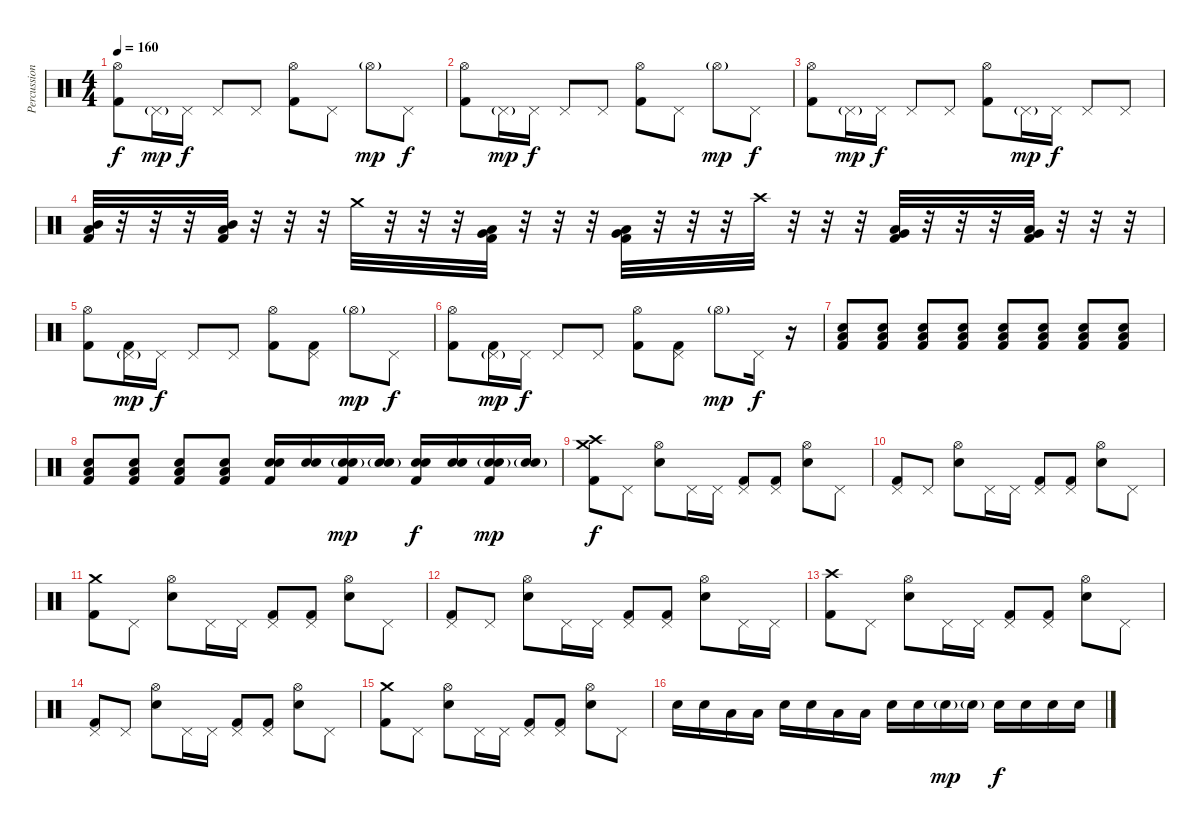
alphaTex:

\track ("Percussion" "Percussion") {instrument percussion}
\staff {score}
\articulation defaults
\ts (4 4)
\tempo 160
\clef neutral
\ks c
("Hi-Hat (open)" "Kick (hit) 2").8{dy f volume 13} "Pedal Hi-Hat (hit)"{g}.16{dy mp} "Pedal Hi-Hat (hit)".16{dy f} "Pedal Hi-Hat (hit)".8 "Pedal Hi-Hat (hit)".8 ("Hi-Hat (open)" "Kick (hit) 2").8 "Pedal Hi-Hat (hit)".8 "Hi-Hat (open)"{g}.8{dy mp} "Pedal Hi-Hat (hit)".8{dy f} |
("Hi-Hat (open)" "Kick (hit) 2").8 "Pedal Hi-Hat (hit)"{g}.16{dy mp} "Pedal Hi-Hat (hit)".16{dy f} "Pedal Hi-Hat (hit)".8 "Pedal Hi-Hat (hit)".8 ("Hi-Hat (open)" "Kick (hit) 2").8 "Pedal Hi-Hat (hit)".8 "Hi-Hat (open)"{g}.8{dy mp} "Pedal Hi-Hat (hit)".8{dy f} |
("Hi-Hat (open)" "Kick (hit) 2").8 "Pedal Hi-Hat (hit)"{g}.16{dy mp} "Pedal Hi-Hat (hit)".16{dy f} "Pedal Hi-Hat (hit)".8 "Pedal Hi-Hat (hit)".8 ("Hi-Hat (open)" "Kick (hit) 2").8 "Pedal Hi-Hat (hit)"{g}.16{dy mp} "Pedal Hi-Hat (hit)".16{dy f} "Pedal Hi-Hat (hit)".8 "Pedal Hi-Hat (hit)".8 |
("Mid Tom (hit)" "Low Tom (hit)" "Kick (hit) 2").32 r.32 r.32 r.32 ("Mid Tom (hit)" "Low Tom (hit)" "Kick (hit) 2").32 r.32 r.32 r.32 "Crash medium (hit)".32 r.32 r.32 r.32 ("Low Tom (hit)" "Very Low Tom (hit)" "Kick (hit) 2").32 r.32 r.32 r.32 ("Low Tom (hit)" "Very Low Tom (hit)" "Kick (hit) 2").32 r.32 r.32 r.32 "Crash high (hit)".32 r.32 r.32 r.32 ("Very Low Tom (hit)" "Low Floor Tom (hit)" "Kick (hit) 2").32 r.32 r.32 r.32 ("Very Low Tom (hit)" "Low Floor Tom (hit)" "Kick (hit) 2").32 r.32 r.32 r.32 |
("Hi-Hat (open)" "Kick (hit) 2").8 ("Pedal Hi-Hat (hit)"{g} "Kick (hit) 2").16{dy mp} "Pedal Hi-Hat (hit)".16{dy f} "Pedal Hi-Hat (hit)".8 "Pedal Hi-Hat (hit)".8 ("Hi-Hat (open)" "Kick (hit) 2").8 ("Pedal Hi-Hat (hit)" "Kick (hit) 2").8 "Hi-Hat (open)"{g}.8{dy mp} "Pedal Hi-Hat (hit)".8{dy f} |
("Hi-Hat (open)" "Kick (hit) 2").8 ("Pedal Hi-Hat (hit)"{g} "Kick (hit) 2").16{dy mp} "Pedal Hi-Hat (hit)".16{dy f} "Pedal Hi-Hat (hit)".8 "Pedal Hi-Hat (hit)".8 ("Hi-Hat (open)" "Kick (hit) 2").8 ("Pedal Hi-Hat (hit)" "Kick (hit) 2").8 "Hi-Hat (open)"{g}.8{dy mp} "Pedal Hi-Hat (hit)".16{dy f} r.16{volume 9} |
("Low Floor Tom (hit)" "Electric Snare (hit)" "Kick (hit) 2").8{volume 13} ("Low Floor Tom (hit)" "Electric Snare (hit)" "Kick (hit) 2").8 ("Low Floor Tom (hit)" "Electric Snare (hit)" "Kick (hit) 2").8 ("Low Floor Tom (hit)" "Electric Snare (hit)" "Kick (hit) 2").8 ("Low Floor Tom (hit)" "Electric Snare (hit)" "Kick (hit) 2").8 ("Low Floor Tom (hit)" "Electric Snare (hit)" "Kick (hit) 2").8 ("Low Floor Tom (hit)" "Electric Snare (hit)" "Kick (hit) 2").8 ("Low Floor Tom (hit)" "Electric Snare (hit)" "Kick (hit) 2").8 |
("Low Floor Tom (hit)" "Electric Snare (hit)" "Kick (hit) 2").8 ("Low Floor Tom (hit)" "Electric Snare (hit)" "Kick (hit) 2").8 ("Low Floor Tom (hit)" "Electric Snare (hit)" "Kick (hit) 2").8 ("Low Floor Tom (hit)" "Electric Snare (hit)" "Kick (hit) 2").8 ("Electric Snare (hit)" "Electric Snare (hit)" "Kick (hit) 2").16 ("Electric Snare (hit)" "Electric Snare (hit)").16 ("Electric Snare (hit)" "Electric Snare (hit)"{g} "Kick (hit) 2").16{dy mp} ("Electric Snare (hit)" "Electric Snare (hit)"{g}).16 ("Electric Snare (hit)" "Electric Snare (hit)" "Kick (hit) 2").16{dy f} ("Electric Snare (hit)" "Electric Snare (hit)").16 ("Electric Snare (hit)" "Electric Snare (hit)"{g} "Kick (hit) 2").16{dy mp} ("Electric Snare (hit)" "Electric Snare (hit)"{g}).16 |
("Crash high (hit)" "Crash medium (hit)" "Kick (hit) 2").8{dy f} "Pedal Hi-Hat (hit)".8 ("Hi-Hat (open)" "Electric Snare (hit)").8 "Pedal Hi-Hat (hit)".16 "Pedal Hi-Hat (hit)".16 ("Pedal Hi-Hat (hit)" "Kick (hit) 2").8 ("Pedal Hi-Hat (hit)" "Kick (hit) 2").8 ("Hi-Hat (open)" "Electric Snare (hit)").8 "Pedal Hi-Hat (hit)".8 |
("Pedal Hi-Hat (hit)" "Kick (hit) 2").8 "Pedal Hi-Hat (hit)".8 ("Hi-Hat (open)" "Electric Snare (hit)").8 "Pedal Hi-Hat (hit)".16 "Pedal Hi-Hat (hit)".16 ("Pedal Hi-Hat (hit)" "Kick (hit) 2").8 ("Pedal Hi-Hat (hit)" "Kick (hit) 2").8 ("Hi-Hat (open)" "Electric Snare (hit)").8 "Pedal Hi-Hat (hit)".8 |
("Crash medium (hit)" "Kick (hit) 2").8 "Pedal Hi-Hat (hit)".8 ("Hi-Hat (open)" "Electric Snare (hit)").8 "Pedal Hi-Hat (hit)".16 "Pedal Hi-Hat (hit)".16 ("Pedal Hi-Hat (hit)" "Kick (hit) 2").8 ("Pedal Hi-Hat (hit)" "Kick (hit) 2").8 ("Hi-Hat (open)" "Electric Snare (hit)").8 "Pedal Hi-Hat (hit)".8 |
("Pedal Hi-Hat (hit)" "Kick (hit) 2").8 "Pedal Hi-Hat (hit)".8 ("Hi-Hat (open)" "Electric Snare (hit)").8 "Pedal Hi-Hat (hit)".16 "Pedal Hi-Hat (hit)".16 ("Pedal Hi-Hat (hit)" "Kick (hit) 2").8 ("Pedal Hi-Hat (hit)" "Kick (hit) 2").8 ("Hi-Hat (open)" "Electric Snare (hit)").8 "Pedal Hi-Hat (hit)".16 "Pedal Hi-Hat (hit)".16 |
("Crash high (hit)" "Kick (hit) 2").8 "Pedal Hi-Hat (hit)".8 ("Hi-Hat (open)" "Electric Snare (hit)").8 "Pedal Hi-Hat (hit)".16 "Pedal Hi-Hat (hit)".16 ("Pedal Hi-Hat (hit)" "Kick (hit) 2").8 ("Pedal Hi-Hat (hit)" "Kick (hit) 2").8 ("Hi-Hat (open)" "Electric Snare (hit)").8 "Pedal Hi-Hat (hit)".8 |
("Pedal Hi-Hat (hit)" "Kick (hit) 2").8 "Pedal Hi-Hat (hit)".8 ("Hi-Hat (open)" "Electric Snare (hit)").8 "Pedal Hi-Hat (hit)".16 "Pedal Hi-Hat (hit)".16 ("Pedal Hi-Hat (hit)" "Kick (hit) 2").8 ("Pedal Hi-Hat (hit)" "Kick (hit) 2").8 ("Hi-Hat (open)" "Electric Snare (hit)").8 "Pedal Hi-Hat (hit)".8 |
("Crash medium (hit)" "Kick (hit) 2").8 "Pedal Hi-Hat (hit)".8 ("Hi-Hat (open)" "Electric Snare (hit)").8 "Pedal Hi-Hat (hit)".16 "Pedal Hi-Hat (hit)".16 ("Pedal Hi-Hat (hit)" "Kick (hit) 2").8 ("Pedal Hi-Hat (hit)" "Kick (hit) 2").8 ("Hi-Hat (open)" "Electric Snare (hit)").8 "Pedal Hi-Hat (hit)".8 |
"Electric Snare (hit)".16 "Electric Snare (hit)".16 "Low Tom (hit)".16 "Low Tom (hit)".16 "Electric Snare (hit)".16 "Electric Snare (hit)".16 "Low Tom (hit)".16 "Low Tom (hit)".16 "Electric Snare (hit)".16 "Electric Snare (hit)".16 "Electric Snare (hit)"{g}.16{dy mp} "Electric Snare (hit)"{g}.16 "Electric Snare (hit)".16{dy f} "Electric Snare (hit)".16 "Electric Snare (hit)".16 "Electric Snare (hit)".16
